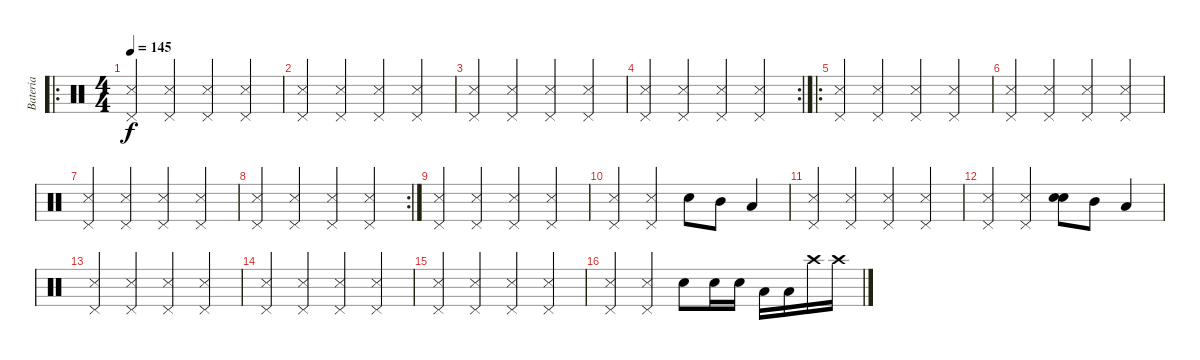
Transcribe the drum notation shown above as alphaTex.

\track (" Bateria" " Bateria") {instrument percussion}
\staff {score}
\articulation defaults
\ro
\ts (4 4)
\tempo 145
\clef neutral
\ks c
("Pedal Hi-Hat (hit)" "Snare (side stick) 3").4{dy f} ("Pedal Hi-Hat (hit)" "Snare (side stick) 3").4 ("Pedal Hi-Hat (hit)" "Snare (side stick) 3").4 ("Pedal Hi-Hat (hit)" "Snare (side stick) 3").4 |
("Pedal Hi-Hat (hit)" "Snare (side stick) 3").4 ("Pedal Hi-Hat (hit)" "Snare (side stick) 3").4 ("Pedal Hi-Hat (hit)" "Snare (side stick) 3").4 ("Pedal Hi-Hat (hit)" "Snare (side stick) 3").4 |
("Pedal Hi-Hat (hit)" "Snare (side stick) 3").4 ("Pedal Hi-Hat (hit)" "Snare (side stick) 3").4 ("Pedal Hi-Hat (hit)" "Snare (side stick) 3").4 ("Pedal Hi-Hat (hit)" "Snare (side stick) 3").4 |
\rc 2
("Pedal Hi-Hat (hit)" "Snare (side stick) 3").4 ("Pedal Hi-Hat (hit)" "Snare (side stick) 3").4 ("Pedal Hi-Hat (hit)" "Snare (side stick) 3").4 ("Pedal Hi-Hat (hit)" "Snare (side stick) 3").4 |
\ro
("Pedal Hi-Hat (hit)" "Snare (side stick) 3").4 ("Pedal Hi-Hat (hit)" "Snare (side stick) 3").4 ("Pedal Hi-Hat (hit)" "Snare (side stick) 3").4 ("Pedal Hi-Hat (hit)" "Snare (side stick) 3").4 |
("Pedal Hi-Hat (hit)" "Snare (side stick) 3").4 ("Pedal Hi-Hat (hit)" "Snare (side stick) 3").4 ("Pedal Hi-Hat (hit)" "Snare (side stick) 3").4 ("Pedal Hi-Hat (hit)" "Snare (side stick) 3").4 |
("Pedal Hi-Hat (hit)" "Snare (side stick) 3").4 ("Pedal Hi-Hat (hit)" "Snare (side stick) 3").4 ("Pedal Hi-Hat (hit)" "Snare (side stick) 3").4 ("Pedal Hi-Hat (hit)" "Snare (side stick) 3").4 |
\rc 2
("Pedal Hi-Hat (hit)" "Snare (side stick) 3").4 ("Pedal Hi-Hat (hit)" "Snare (side stick) 3").4 ("Pedal Hi-Hat (hit)" "Snare (side stick) 3").4 ("Pedal Hi-Hat (hit)" "Snare (side stick) 3").4 |
("Pedal Hi-Hat (hit)" "Snare (side stick) 3").4 ("Pedal Hi-Hat (hit)" "Snare (side stick) 3").4 ("Pedal Hi-Hat (hit)" "Snare (side stick) 3").4 ("Pedal Hi-Hat (hit)" "Snare (side stick) 3").4 |
("Pedal Hi-Hat (hit)" "Snare (side stick) 3").4 ("Pedal Hi-Hat (hit)" "Snare (side stick) 3").4 "Snare (hit) 2".8 "Mid Tom (hit)".8 "Low Tom (hit)".4 |
("Pedal Hi-Hat (hit)" "Snare (side stick) 3").4 ("Pedal Hi-Hat (hit)" "Snare (side stick) 3").4 ("Pedal Hi-Hat (hit)" "Snare (side stick) 3").4 ("Pedal Hi-Hat (hit)" "Snare (side stick) 3").4 |
("Pedal Hi-Hat (hit)" "Snare (side stick) 3").4 ("Pedal Hi-Hat (hit)" "Snare (side stick) 3").4 ("Snare (hit) 2" "Snare (hit) 2").8 "Mid Tom (hit)".8 "Low Tom (hit)".4 |
("Pedal Hi-Hat (hit)" "Snare (side stick) 3").4 ("Pedal Hi-Hat (hit)" "Snare (side stick) 3").4 ("Pedal Hi-Hat (hit)" "Snare (side stick) 3").4 ("Pedal Hi-Hat (hit)" "Snare (side stick) 3").4 |
("Pedal Hi-Hat (hit)" "Snare (side stick) 3").4 ("Pedal Hi-Hat (hit)" "Snare (side stick) 3").4 ("Pedal Hi-Hat (hit)" "Snare (side stick) 3").4 ("Pedal Hi-Hat (hit)" "Snare (side stick) 3").4 |
("Pedal Hi-Hat (hit)" "Snare (side stick) 3").4 ("Pedal Hi-Hat (hit)" "Snare (side stick) 3").4 ("Pedal Hi-Hat (hit)" "Snare (side stick) 3").4 ("Pedal Hi-Hat (hit)" "Snare (side stick) 3").4 |
("Pedal Hi-Hat (hit)" "Snare (side stick) 3").4 ("Pedal Hi-Hat (hit)" "Snare (side stick) 3").4 "Snare (hit) 2".8 "Snare (hit) 2".16 "Snare (hit) 2".16 "Low Tom (hit)".16 "Low Tom (hit)".16 "Crash high (hit)".16 "Crash high (hit)".16
